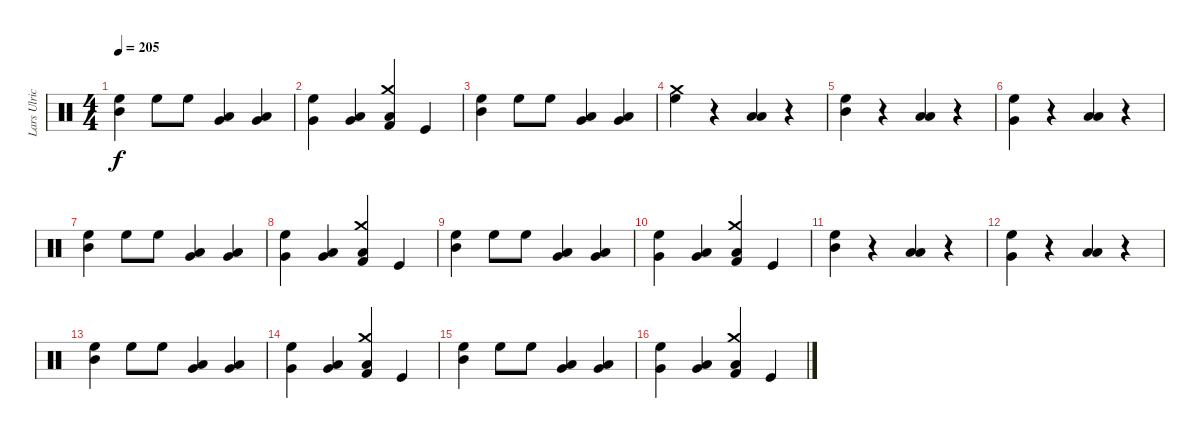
\track ("Lars Ulrich" "Lars Ulric") {instrument percussion}
\staff {score}
\articulation defaults
\ts (4 4)
\tempo 205
\clef neutral
\ks c
("Mid Tom (hit)" "High Floor Tom (hit)").4{dy f} "High Floor Tom (hit)".8 "High Floor Tom (hit)".8 ("Very Low Tom (hit)" "Low Tom (hit)").4 ("Low Floor Tom (hit)" "Very Low Tom (hit)").4 |
("High Floor Tom (hit)" "Very Low Tom (hit)").4 ("Low Floor Tom (hit)" "Very Low Tom (hit)").4 ("Crash medium (hit)" "Low Tom (hit)" "Kick (hit) 2").4 "Kick (hit)".4 |
("Mid Tom (hit)" "High Floor Tom (hit)").4 "High Floor Tom (hit)".8 "High Floor Tom (hit)".8 ("Very Low Tom (hit)" "Low Tom (hit)").4 ("Low Floor Tom (hit)" "Very Low Tom (hit)").4 |
("Crash medium (hit)" "High Floor Tom (hit)").4 r.4 ("Low Tom (hit)" "Low Floor Tom (hit)").4 r.4 |
("Mid Tom (hit)" "High Floor Tom (hit)").4 r.4 ("Low Tom (hit)" "Low Floor Tom (hit)").4 r.4 |
("Very Low Tom (hit)" "High Floor Tom (hit)").4 r.4 ("Low Tom (hit)" "Low Floor Tom (hit)").4 r.4 |
("Mid Tom (hit)" "High Floor Tom (hit)").4 "High Floor Tom (hit)".8 "High Floor Tom (hit)".8 ("Very Low Tom (hit)" "Low Tom (hit)").4 ("Low Floor Tom (hit)" "Very Low Tom (hit)").4 |
("High Floor Tom (hit)" "Very Low Tom (hit)").4 ("Low Floor Tom (hit)" "Very Low Tom (hit)").4 ("Crash medium (hit)" "Low Tom (hit)" "Kick (hit) 2").4 "Kick (hit)".4 |
("Mid Tom (hit)" "High Floor Tom (hit)").4 "High Floor Tom (hit)".8 "High Floor Tom (hit)".8 ("Very Low Tom (hit)" "Low Tom (hit)").4 ("Low Floor Tom (hit)" "Very Low Tom (hit)").4 |
("High Floor Tom (hit)" "Very Low Tom (hit)").4 ("Low Floor Tom (hit)" "Very Low Tom (hit)").4 ("Crash medium (hit)" "Low Tom (hit)" "Kick (hit) 2").4 "Kick (hit)".4 |
("Mid Tom (hit)" "High Floor Tom (hit)").4 r.4 ("Low Tom (hit)" "Low Floor Tom (hit)").4 r.4 |
("Very Low Tom (hit)" "High Floor Tom (hit)").4 r.4 ("Low Tom (hit)" "Low Floor Tom (hit)").4 r.4 |
("Mid Tom (hit)" "High Floor Tom (hit)").4 "High Floor Tom (hit)".8 "High Floor Tom (hit)".8 ("Very Low Tom (hit)" "Low Tom (hit)").4 ("Low Floor Tom (hit)" "Very Low Tom (hit)").4 |
("High Floor Tom (hit)" "Very Low Tom (hit)").4 ("Low Floor Tom (hit)" "Very Low Tom (hit)").4 ("Crash medium (hit)" "Low Tom (hit)" "Kick (hit) 2").4 "Kick (hit)".4 |
("Mid Tom (hit)" "High Floor Tom (hit)").4 "High Floor Tom (hit)".8 "High Floor Tom (hit)".8 ("Very Low Tom (hit)" "Low Tom (hit)").4 ("Low Floor Tom (hit)" "Very Low Tom (hit)").4 |
("High Floor Tom (hit)" "Very Low Tom (hit)").4 ("Low Floor Tom (hit)" "Very Low Tom (hit)").4 ("Crash medium (hit)" "Low Tom (hit)" "Kick (hit) 2").4 "Kick (hit)".4
